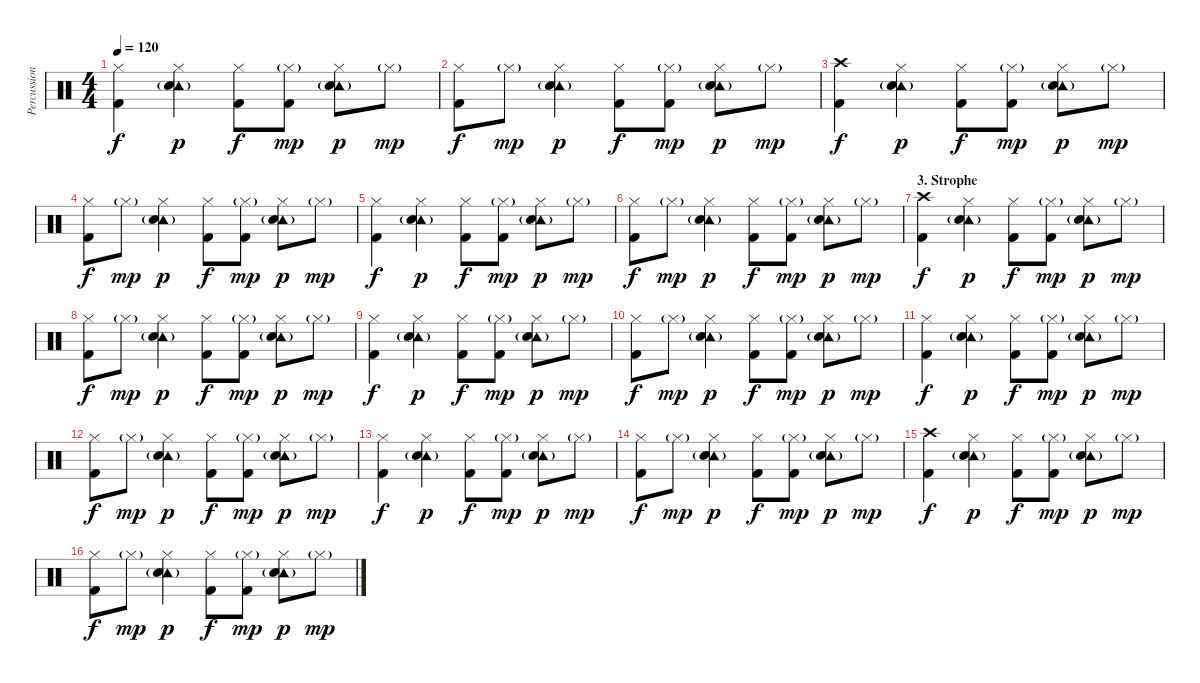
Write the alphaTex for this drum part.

\track ("Percussion     E" "Percussion") {instrument percussion}
\staff {score}
\articulation defaults
\ts (4 4)
\tempo 120
\clef neutral
\ks c
("Hi-Hat (closed)" "Kick (hit) 2").4{dy f} ("Hi-Hat (closed)" "Tambourine (hit)"{g} "Electric Snare (hit)").4{dy p} ("Hi-Hat (closed)" "Kick (hit) 2").8{dy f} ("Hi-Hat (closed)"{g} "Kick (hit) 2").8{dy mp} ("Hi-Hat (closed)" "Tambourine (hit)"{g} "Electric Snare (hit)").8{dy p} "Hi-Hat (closed)"{g}.8{dy mp} |
("Hi-Hat (closed)" "Kick (hit) 2").8{dy f} "Hi-Hat (closed)"{g}.8{dy mp} ("Hi-Hat (closed)" "Tambourine (hit)"{g} "Electric Snare (hit)").4{dy p} ("Hi-Hat (closed)" "Kick (hit) 2").8{dy f} ("Hi-Hat (closed)"{g} "Kick (hit) 2").8{dy mp} ("Hi-Hat (closed)" "Tambourine (hit)"{g} "Electric Snare (hit)").8{dy p} "Hi-Hat (closed)"{g}.8{dy mp} |
("Crash high (hit)" "Kick (hit) 2").4{dy f} ("Hi-Hat (closed)" "Tambourine (hit)"{g} "Electric Snare (hit)").4{dy p} ("Hi-Hat (closed)" "Kick (hit) 2").8{dy f} ("Hi-Hat (closed)"{g} "Kick (hit) 2").8{dy mp} ("Hi-Hat (closed)" "Tambourine (hit)"{g} "Electric Snare (hit)").8{dy p} "Hi-Hat (closed)"{g}.8{dy mp} |
("Hi-Hat (closed)" "Kick (hit) 2").8{dy f} "Hi-Hat (closed)"{g}.8{dy mp} ("Hi-Hat (closed)" "Tambourine (hit)"{g} "Electric Snare (hit)").4{dy p} ("Hi-Hat (closed)" "Kick (hit) 2").8{dy f} ("Hi-Hat (closed)"{g} "Kick (hit) 2").8{dy mp} ("Hi-Hat (closed)" "Tambourine (hit)"{g} "Electric Snare (hit)").8{dy p} "Hi-Hat (closed)"{g}.8{dy mp} |
("Hi-Hat (closed)" "Kick (hit) 2").4{dy f} ("Hi-Hat (closed)" "Tambourine (hit)"{g} "Electric Snare (hit)").4{dy p} ("Hi-Hat (closed)" "Kick (hit) 2").8{dy f} ("Hi-Hat (closed)"{g} "Kick (hit) 2").8{dy mp} ("Hi-Hat (closed)" "Tambourine (hit)"{g} "Electric Snare (hit)").8{dy p} "Hi-Hat (closed)"{g}.8{dy mp} |
("Hi-Hat (closed)" "Kick (hit) 2").8{dy f} "Hi-Hat (closed)"{g}.8{dy mp} ("Hi-Hat (closed)" "Tambourine (hit)"{g} "Electric Snare (hit)").4{dy p} ("Hi-Hat (closed)" "Kick (hit) 2").8{dy f} ("Hi-Hat (closed)"{g} "Kick (hit) 2").8{dy mp} ("Hi-Hat (closed)" "Tambourine (hit)"{g} "Electric Snare (hit)").8{dy p} "Hi-Hat (closed)"{g}.8{dy mp} |
\section ("" "3. Strophe")
("Crash high (hit)" "Kick (hit) 2").4{dy f} ("Hi-Hat (closed)" "Tambourine (hit)"{g} "Electric Snare (hit)").4{dy p} ("Hi-Hat (closed)" "Kick (hit) 2").8{dy f} ("Hi-Hat (closed)"{g} "Kick (hit) 2").8{dy mp} ("Hi-Hat (closed)" "Tambourine (hit)"{g} "Electric Snare (hit)").8{dy p} "Hi-Hat (closed)"{g}.8{dy mp} |
("Hi-Hat (closed)" "Kick (hit) 2").8{dy f} "Hi-Hat (closed)"{g}.8{dy mp} ("Hi-Hat (closed)" "Tambourine (hit)"{g} "Electric Snare (hit)").4{dy p} ("Hi-Hat (closed)" "Kick (hit) 2").8{dy f} ("Hi-Hat (closed)"{g} "Kick (hit) 2").8{dy mp} ("Hi-Hat (closed)" "Tambourine (hit)"{g} "Electric Snare (hit)").8{dy p} "Hi-Hat (closed)"{g}.8{dy mp} |
("Hi-Hat (closed)" "Kick (hit) 2").4{dy f} ("Hi-Hat (closed)" "Tambourine (hit)"{g} "Electric Snare (hit)").4{dy p} ("Hi-Hat (closed)" "Kick (hit) 2").8{dy f} ("Hi-Hat (closed)"{g} "Kick (hit) 2").8{dy mp} ("Hi-Hat (closed)" "Tambourine (hit)"{g} "Electric Snare (hit)").8{dy p} "Hi-Hat (closed)"{g}.8{dy mp} |
("Hi-Hat (closed)" "Kick (hit) 2").8{dy f} "Hi-Hat (closed)"{g}.8{dy mp} ("Hi-Hat (closed)" "Tambourine (hit)"{g} "Electric Snare (hit)").4{dy p} ("Hi-Hat (closed)" "Kick (hit) 2").8{dy f} ("Hi-Hat (closed)"{g} "Kick (hit) 2").8{dy mp} ("Hi-Hat (closed)" "Tambourine (hit)"{g} "Electric Snare (hit)").8{dy p} "Hi-Hat (closed)"{g}.8{dy mp} |
("Hi-Hat (closed)" "Kick (hit) 2").4{dy f} ("Hi-Hat (closed)" "Tambourine (hit)"{g} "Electric Snare (hit)").4{dy p} ("Hi-Hat (closed)" "Kick (hit) 2").8{dy f} ("Hi-Hat (closed)"{g} "Kick (hit) 2").8{dy mp} ("Hi-Hat (closed)" "Tambourine (hit)"{g} "Electric Snare (hit)").8{dy p} "Hi-Hat (closed)"{g}.8{dy mp} |
("Hi-Hat (closed)" "Kick (hit) 2").8{dy f} "Hi-Hat (closed)"{g}.8{dy mp} ("Hi-Hat (closed)" "Tambourine (hit)"{g} "Electric Snare (hit)").4{dy p} ("Hi-Hat (closed)" "Kick (hit) 2").8{dy f} ("Hi-Hat (closed)"{g} "Kick (hit) 2").8{dy mp} ("Hi-Hat (closed)" "Tambourine (hit)"{g} "Electric Snare (hit)").8{dy p} "Hi-Hat (closed)"{g}.8{dy mp} |
("Hi-Hat (closed)" "Kick (hit) 2").4{dy f} ("Hi-Hat (closed)" "Tambourine (hit)"{g} "Electric Snare (hit)").4{dy p} ("Hi-Hat (closed)" "Kick (hit) 2").8{dy f} ("Hi-Hat (closed)"{g} "Kick (hit) 2").8{dy mp} ("Hi-Hat (closed)" "Tambourine (hit)"{g} "Electric Snare (hit)").8{dy p} "Hi-Hat (closed)"{g}.8{dy mp} |
("Hi-Hat (closed)" "Kick (hit) 2").8{dy f} "Hi-Hat (closed)"{g}.8{dy mp} ("Hi-Hat (closed)" "Tambourine (hit)"{g} "Electric Snare (hit)").4{dy p} ("Hi-Hat (closed)" "Kick (hit) 2").8{dy f} ("Hi-Hat (closed)"{g} "Kick (hit) 2").8{dy mp} ("Hi-Hat (closed)" "Tambourine (hit)"{g} "Electric Snare (hit)").8{dy p} "Hi-Hat (closed)"{g}.8{dy mp} |
("Crash high (hit)" "Kick (hit) 2").4{dy f} ("Hi-Hat (closed)" "Tambourine (hit)"{g} "Electric Snare (hit)").4{dy p} ("Hi-Hat (closed)" "Kick (hit) 2").8{dy f} ("Hi-Hat (closed)"{g} "Kick (hit) 2").8{dy mp} ("Hi-Hat (closed)" "Tambourine (hit)"{g} "Electric Snare (hit)").8{dy p} "Hi-Hat (closed)"{g}.8{dy mp} |
("Hi-Hat (closed)" "Kick (hit) 2").8{dy f} "Hi-Hat (closed)"{g}.8{dy mp} ("Hi-Hat (closed)" "Tambourine (hit)"{g} "Electric Snare (hit)").4{dy p} ("Hi-Hat (closed)" "Kick (hit) 2").8{dy f} ("Hi-Hat (closed)"{g} "Kick (hit) 2").8{dy mp} ("Hi-Hat (closed)" "Tambourine (hit)"{g} "Electric Snare (hit)").8{dy p} "Hi-Hat (closed)"{g}.8{dy mp}
